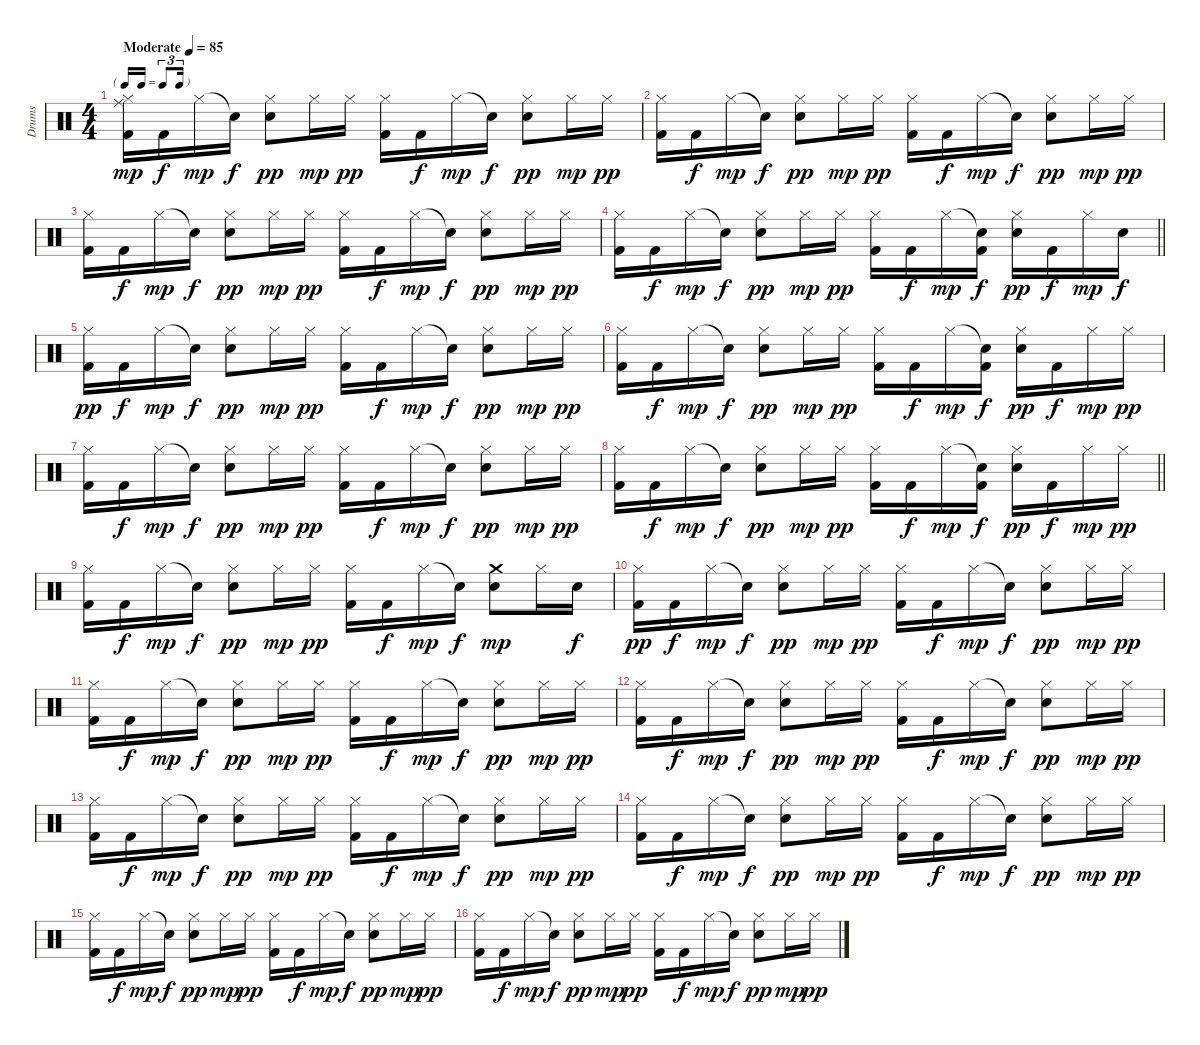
\track ("Drums" "Drums") {instrument percussion}
\staff {score}
\articulation defaults
\ts (4 4)
\tf triplet16th
\tempo (85 "Moderate")
\clef neutral
\ks c
("Hi-Hat (closed)" "Ride (middle)" "Kick (hit) 2").16{dy mp} "Kick (hit) 2".16{dy f} "Hi-Hat (closed)".16{dy mp} "Snare (hit)"{t}.16{dy f} ("Hi-Hat (closed)" "Electric Snare (hit)").8{dy pp} "Hi-Hat (closed)".16{dy mp} "Hi-Hat (closed)".16{dy pp} ("Hi-Hat (closed)" "Kick (hit) 2").16 "Kick (hit) 2".16{dy f} "Hi-Hat (closed)".16{dy mp} "Snare (hit)"{t}.16{dy f} ("Hi-Hat (closed)" "Electric Snare (hit)").8{dy pp} "Hi-Hat (closed)".16{dy mp} "Hi-Hat (closed)".16{dy pp} |
("Hi-Hat (closed)" "Kick (hit) 2").16 "Kick (hit) 2".16{dy f} "Hi-Hat (closed)".16{dy mp} "Snare (hit)"{t}.16{dy f} ("Hi-Hat (closed)" "Electric Snare (hit)").8{dy pp} "Hi-Hat (closed)".16{dy mp} "Hi-Hat (closed)".16{dy pp} ("Hi-Hat (closed)" "Kick (hit) 2").16 "Kick (hit) 2".16{dy f} "Hi-Hat (closed)".16{dy mp} "Snare (hit)"{t}.16{dy f} ("Hi-Hat (closed)" "Electric Snare (hit)").8{dy pp} "Hi-Hat (closed)".16{dy mp} "Hi-Hat (closed)".16{dy pp} |
("Hi-Hat (closed)" "Kick (hit) 2").16 "Kick (hit) 2".16{dy f} "Hi-Hat (closed)".16{dy mp} "Snare (hit)"{t}.16{dy f} ("Hi-Hat (closed)" "Electric Snare (hit)").8{dy pp} "Hi-Hat (closed)".16{dy mp} "Hi-Hat (closed)".16{dy pp} ("Hi-Hat (closed)" "Kick (hit) 2").16 "Kick (hit) 2".16{dy f} "Hi-Hat (closed)".16{dy mp} "Snare (hit)"{t}.16{dy f} ("Hi-Hat (closed)" "Electric Snare (hit)").8{dy pp} "Hi-Hat (closed)".16{dy mp} "Hi-Hat (closed)".16{dy pp} |
\barLineRight lightlight
("Hi-Hat (closed)" "Kick (hit) 2").16 "Kick (hit) 2".16{dy f} "Hi-Hat (closed)".16{dy mp} "Snare (hit)"{t}.16{dy f} ("Hi-Hat (closed)" "Electric Snare (hit)").8{dy pp} "Hi-Hat (closed)".16{dy mp} "Hi-Hat (closed)".16{dy pp} ("Hi-Hat (closed)" "Kick (hit) 2").16 "Kick (hit) 2".16{dy f} "Hi-Hat (closed)".16{dy mp} ("Snare (hit)"{t} "Kick (hit) 2").16{dy f} ("Hi-Hat (closed)" "Electric Snare (hit)").16{dy pp} "Kick (hit) 2".16{dy f} "Hi-Hat (closed)".16{dy mp} "Electric Snare (hit)".16{dy f} |
("Hi-Hat (closed)" "Kick (hit) 2").16{dy pp} "Kick (hit) 2".16{dy f} "Hi-Hat (closed)".16{dy mp} "Snare (hit)"{t}.16{dy f} ("Hi-Hat (closed)" "Electric Snare (hit)").8{dy pp} "Hi-Hat (closed)".16{dy mp} "Hi-Hat (closed)".16{dy pp} ("Hi-Hat (closed)" "Kick (hit) 2").16 "Kick (hit) 2".16{dy f} "Hi-Hat (closed)".16{dy mp} "Snare (hit)"{t}.16{dy f} ("Hi-Hat (closed)" "Electric Snare (hit)").8{dy pp} "Hi-Hat (closed)".16{dy mp} "Hi-Hat (closed)".16{dy pp} |
("Hi-Hat (closed)" "Kick (hit) 2").16 "Kick (hit) 2".16{dy f} "Hi-Hat (closed)".16{dy mp} "Snare (hit)"{t}.16{dy f} ("Hi-Hat (closed)" "Electric Snare (hit)").8{dy pp} "Hi-Hat (closed)".16{dy mp} "Hi-Hat (closed)".16{dy pp} ("Hi-Hat (closed)" "Kick (hit) 2").16 "Kick (hit) 2".16{dy f} "Hi-Hat (closed)".16{dy mp} ("Snare (hit)"{t} "Kick (hit) 2").16{dy f} ("Hi-Hat (closed)" "Electric Snare (hit)").16{dy pp} "Kick (hit) 2".16{dy f} "Hi-Hat (closed)".16{dy mp} "Hi-Hat (closed)".16{dy pp} |
("Hi-Hat (closed)" "Kick (hit) 2").16 "Kick (hit) 2".16{dy f} "Hi-Hat (closed)".16{dy mp} "Snare (hit)"{t}.16{dy f} ("Hi-Hat (closed)" "Electric Snare (hit)").8{dy pp} "Hi-Hat (closed)".16{dy mp} "Hi-Hat (closed)".16{dy pp} ("Hi-Hat (closed)" "Kick (hit) 2").16 "Kick (hit) 2".16{dy f} "Hi-Hat (closed)".16{dy mp} "Snare (hit)"{t}.16{dy f} ("Hi-Hat (closed)" "Electric Snare (hit)").8{dy pp} "Hi-Hat (closed)".16{dy mp} "Hi-Hat (closed)".16{dy pp} |
\barLineRight lightlight
("Hi-Hat (closed)" "Kick (hit) 2").16 "Kick (hit) 2".16{dy f} "Hi-Hat (closed)".16{dy mp} "Snare (hit)"{t}.16{dy f} ("Hi-Hat (closed)" "Electric Snare (hit)").8{dy pp} "Hi-Hat (closed)".16{dy mp} "Hi-Hat (closed)".16{dy pp} ("Hi-Hat (closed)" "Kick (hit) 2").16 "Kick (hit) 2".16{dy f} "Hi-Hat (closed)".16{dy mp} ("Snare (hit)"{t} "Kick (hit) 2").16{dy f} ("Hi-Hat (closed)" "Electric Snare (hit)").16{dy pp} "Kick (hit) 2".16{dy f} "Hi-Hat (closed)".16{dy mp} "Hi-Hat (closed)".16{dy pp} |
("Hi-Hat (closed)" "Kick (hit) 2").16 "Kick (hit) 2".16{dy f} "Hi-Hat (closed)".16{dy mp} "Snare (hit)"{t}.16{dy f} ("Hi-Hat (closed)" "Electric Snare (hit)").8{dy pp} "Hi-Hat (closed)".16{dy mp} "Hi-Hat (closed)".16{dy pp} ("Hi-Hat (closed)" "Kick (hit) 2").16 "Kick (hit) 2".16{dy f} "Hi-Hat (closed)".16{dy mp} "Snare (hit)"{t}.16{dy f} ("Crash medium (hit)" "Electric Snare (hit)").8{dy mp} "Hi-Hat (closed)".16 "Electric Snare (hit)".16{dy f} |
("Hi-Hat (closed)" "Kick (hit) 2").16{dy pp} "Kick (hit) 2".16{dy f} "Hi-Hat (closed)".16{dy mp} "Snare (hit)"{t}.16{dy f} ("Hi-Hat (closed)" "Electric Snare (hit)").8{dy pp} "Hi-Hat (closed)".16{dy mp} "Hi-Hat (closed)".16{dy pp} ("Hi-Hat (closed)" "Kick (hit) 2").16 "Kick (hit) 2".16{dy f} "Hi-Hat (closed)".16{dy mp} "Snare (hit)"{t}.16{dy f} ("Hi-Hat (closed)" "Electric Snare (hit)").8{dy pp} "Hi-Hat (closed)".16{dy mp} "Hi-Hat (closed)".16{dy pp} |
("Hi-Hat (closed)" "Kick (hit) 2").16 "Kick (hit) 2".16{dy f} "Hi-Hat (closed)".16{dy mp} "Snare (hit)"{t}.16{dy f} ("Hi-Hat (closed)" "Electric Snare (hit)").8{dy pp} "Hi-Hat (closed)".16{dy mp} "Hi-Hat (closed)".16{dy pp} ("Hi-Hat (closed)" "Kick (hit) 2").16 "Kick (hit) 2".16{dy f} "Hi-Hat (closed)".16{dy mp} "Snare (hit)"{t}.16{dy f} ("Hi-Hat (closed)" "Electric Snare (hit)").8{dy pp} "Hi-Hat (closed)".16{dy mp} "Hi-Hat (closed)".16{dy pp} |
("Hi-Hat (closed)" "Kick (hit) 2").16 "Kick (hit) 2".16{dy f} "Hi-Hat (closed)".16{dy mp} "Snare (hit)"{t}.16{dy f} ("Hi-Hat (closed)" "Electric Snare (hit)").8{dy pp} "Hi-Hat (closed)".16{dy mp} "Hi-Hat (closed)".16{dy pp} ("Hi-Hat (closed)" "Kick (hit) 2").16 "Kick (hit) 2".16{dy f} "Hi-Hat (closed)".16{dy mp} "Snare (hit)"{t}.16{dy f} ("Hi-Hat (closed)" "Electric Snare (hit)").8{dy pp} "Hi-Hat (closed)".16{dy mp} "Hi-Hat (closed)".16{dy pp} |
("Hi-Hat (closed)" "Kick (hit) 2").16 "Kick (hit) 2".16{dy f} "Hi-Hat (closed)".16{dy mp} "Snare (hit)"{t}.16{dy f} ("Hi-Hat (closed)" "Electric Snare (hit)").8{dy pp} "Hi-Hat (closed)".16{dy mp} "Hi-Hat (closed)".16{dy pp} ("Hi-Hat (closed)" "Kick (hit) 2").16 "Kick (hit) 2".16{dy f} "Hi-Hat (closed)".16{dy mp} "Snare (hit)"{t}.16{dy f} ("Hi-Hat (closed)" "Electric Snare (hit)").8{dy pp} "Hi-Hat (closed)".16{dy mp} "Hi-Hat (closed)".16{dy pp} |
("Hi-Hat (closed)" "Kick (hit) 2").16 "Kick (hit) 2".16{dy f} "Hi-Hat (closed)".16{dy mp} "Snare (hit)"{t}.16{dy f} ("Hi-Hat (closed)" "Electric Snare (hit)").8{dy pp} "Hi-Hat (closed)".16{dy mp} "Hi-Hat (closed)".16{dy pp} ("Hi-Hat (closed)" "Kick (hit) 2").16 "Kick (hit) 2".16{dy f} "Hi-Hat (closed)".16{dy mp} "Snare (hit)"{t}.16{dy f} ("Hi-Hat (closed)" "Electric Snare (hit)").8{dy pp} "Hi-Hat (closed)".16{dy mp} "Hi-Hat (closed)".16{dy pp} |
("Hi-Hat (closed)" "Kick (hit) 2").16 "Kick (hit) 2".16{dy f} "Hi-Hat (closed)".16{dy mp} "Snare (hit)"{t}.16{dy f} ("Hi-Hat (closed)" "Electric Snare (hit)").8{dy pp} "Hi-Hat (closed)".16{dy mp} "Hi-Hat (closed)".16{dy pp} ("Hi-Hat (closed)" "Kick (hit) 2").16 "Kick (hit) 2".16{dy f} "Hi-Hat (closed)".16{dy mp} "Snare (hit)"{t}.16{dy f} ("Hi-Hat (closed)" "Electric Snare (hit)").8{dy pp} "Hi-Hat (closed)".16{dy mp} "Hi-Hat (closed)".16{dy pp} |
("Hi-Hat (closed)" "Kick (hit) 2").16 "Kick (hit) 2".16{dy f} "Hi-Hat (closed)".16{dy mp} "Snare (hit)"{t}.16{dy f} ("Hi-Hat (closed)" "Electric Snare (hit)").8{dy pp} "Hi-Hat (closed)".16{dy mp} "Hi-Hat (closed)".16{dy pp} ("Hi-Hat (closed)" "Kick (hit) 2").16 "Kick (hit) 2".16{dy f} "Hi-Hat (closed)".16{dy mp} "Snare (hit)"{t}.16{dy f} ("Hi-Hat (closed)" "Electric Snare (hit)").8{dy pp} "Hi-Hat (closed)".16{dy mp} "Hi-Hat (closed)".16{dy pp}
